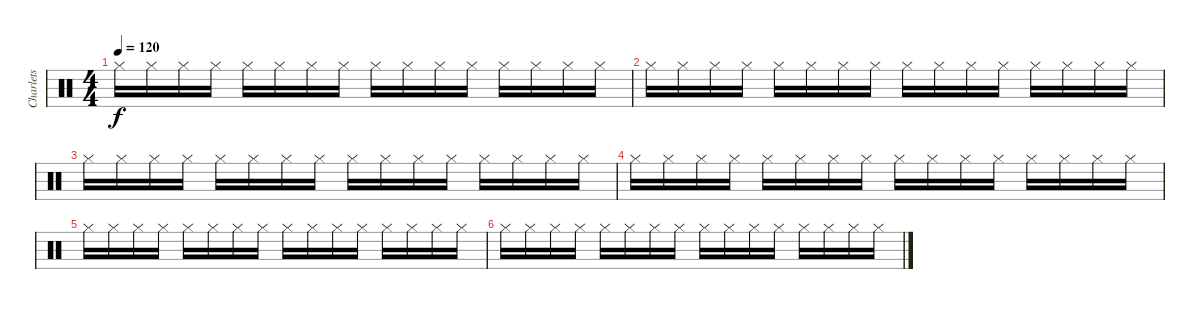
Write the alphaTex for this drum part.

\track ("Charlets" "Charlets") {instrument percussion}
\staff {score}
\articulation defaults
\ts (4 4)
\tempo 120
\clef neutral
\ks c "Hi-Hat (closed)".16{dy f} "Hi-Hat (closed)".16 "Hi-Hat (closed)".16 "Hi-Hat (closed)".16 "Hi-Hat (closed)".16 "Hi-Hat (closed)".16 "Hi-Hat (closed)".16 "Hi-Hat (closed)".16 "Hi-Hat (closed)".16 "Hi-Hat (closed)".16 "Hi-Hat (closed)".16 "Hi-Hat (closed)".16 "Hi-Hat (closed)".16 "Hi-Hat (closed)".16 "Hi-Hat (closed)".16 "Hi-Hat (closed)".16
|
"Hi-Hat (closed)".16 "Hi-Hat (closed)".16 "Hi-Hat (closed)".16 "Hi-Hat (closed)".16 "Hi-Hat (closed)".16 "Hi-Hat (closed)".16 "Hi-Hat (closed)".16 "Hi-Hat (closed)".16 "Hi-Hat (closed)".16 "Hi-Hat (closed)".16 "Hi-Hat (closed)".16 "Hi-Hat (closed)".16 "Hi-Hat (closed)".16 "Hi-Hat (closed)".16 "Hi-Hat (closed)".16 "Hi-Hat (closed)".16 |
"Hi-Hat (closed)".16 "Hi-Hat (closed)".16 "Hi-Hat (closed)".16 "Hi-Hat (closed)".16 "Hi-Hat (closed)".16 "Hi-Hat (closed)".16 "Hi-Hat (closed)".16 "Hi-Hat (closed)".16 "Hi-Hat (closed)".16 "Hi-Hat (closed)".16 "Hi-Hat (closed)".16 "Hi-Hat (closed)".16 "Hi-Hat (closed)".16 "Hi-Hat (closed)".16 "Hi-Hat (closed)".16 "Hi-Hat (closed)".16 |
"Hi-Hat (closed)".16 "Hi-Hat (closed)".16 "Hi-Hat (closed)".16 "Hi-Hat (closed)".16 "Hi-Hat (closed)".16 "Hi-Hat (closed)".16 "Hi-Hat (closed)".16 "Hi-Hat (closed)".16 "Hi-Hat (closed)".16 "Hi-Hat (closed)".16 "Hi-Hat (closed)".16 "Hi-Hat (closed)".16 "Hi-Hat (closed)".16 "Hi-Hat (closed)".16 "Hi-Hat (closed)".16 "Hi-Hat (closed)".16 |
"Hi-Hat (closed)".16 "Hi-Hat (closed)".16 "Hi-Hat (closed)".16 "Hi-Hat (closed)".16 "Hi-Hat (closed)".16 "Hi-Hat (closed)".16 "Hi-Hat (closed)".16 "Hi-Hat (closed)".16 "Hi-Hat (closed)".16 "Hi-Hat (closed)".16 "Hi-Hat (closed)".16 "Hi-Hat (closed)".16 "Hi-Hat (closed)".16 "Hi-Hat (closed)".16 "Hi-Hat (closed)".16 "Hi-Hat (closed)".16 |
"Hi-Hat (closed)".16 "Hi-Hat (closed)".16 "Hi-Hat (closed)".16 "Hi-Hat (closed)".16 "Hi-Hat (closed)".16 "Hi-Hat (closed)".16 "Hi-Hat (closed)".16 "Hi-Hat (closed)".16 "Hi-Hat (closed)".16 "Hi-Hat (closed)".16 "Hi-Hat (closed)".16 "Hi-Hat (closed)".16 "Hi-Hat (closed)".16 "Hi-Hat (closed)".16 "Hi-Hat (closed)".16 "Hi-Hat (closed)".16
